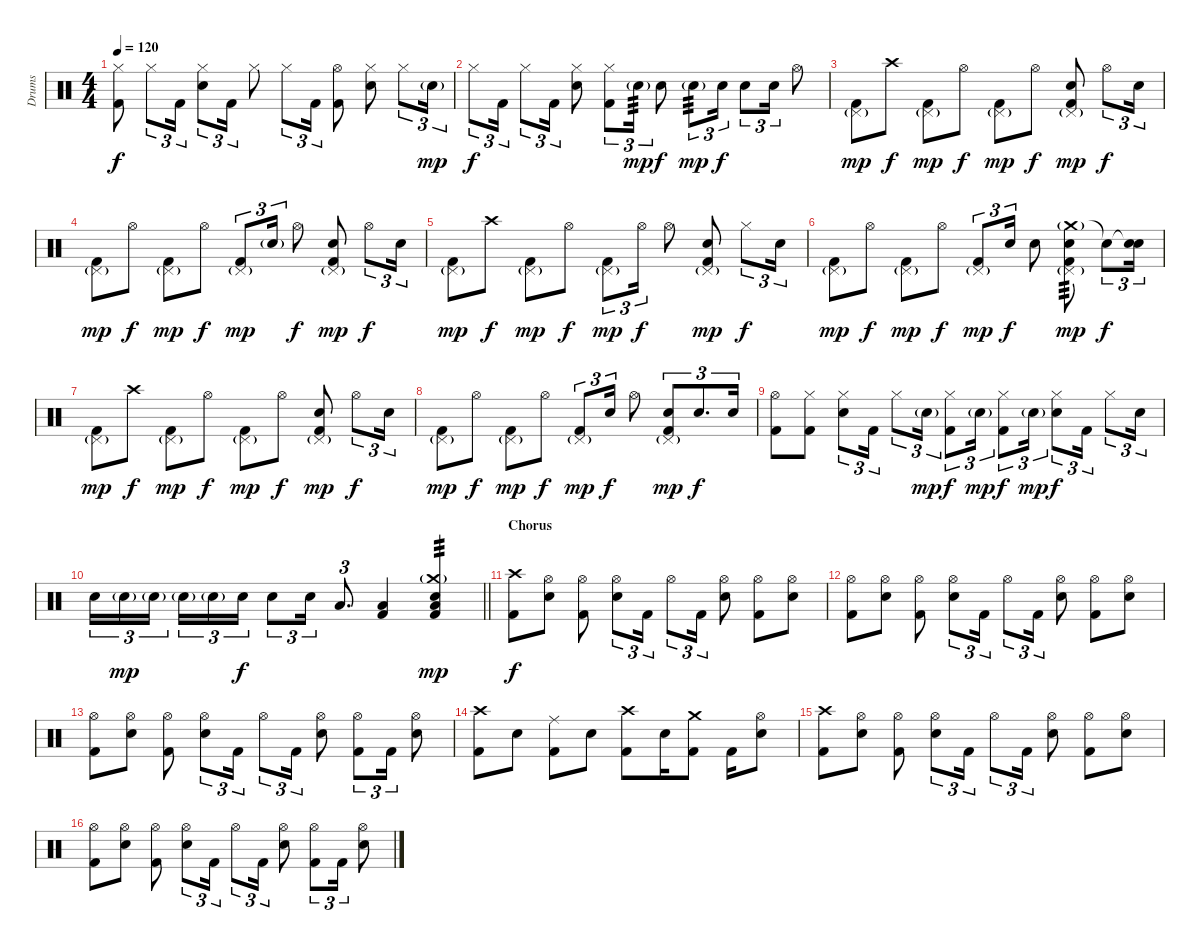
\track ("Drums" "Drums") {instrument percussion}
\staff {score}
\articulation defaults
\ts (4 4)
\tempo 120
\clef neutral
\ks c
("Hi-Hat (closed)" "Kick (hit) 2").8{dy f} "Hi-Hat (closed)".8{tu (3 2)} "Kick (hit) 2".16{tu (3 2)} ("Hi-Hat (closed)" "Electric Snare (hit)").8{tu (3 2)} "Kick (hit) 2".16{tu (3 2)} "Hi-Hat (closed)".8 "Hi-Hat (closed)".8{tu (3 2)} "Kick (hit) 2".16{tu (3 2)} ("Hi-Hat (open)" "Kick (hit) 2").8 ("Hi-Hat (closed)" "Electric Snare (hit)").8 "Hi-Hat (closed)".8{tu (3 2)} "Electric Snare (hit)"{g}.16{tu (3 2) dy mp} |
"Hi-Hat (closed)".8{tu (3 2) dy f} "Kick (hit) 2".16{tu (3 2)} "Hi-Hat (closed)".8{tu (3 2)} "Kick (hit) 2".16{tu (3 2)} ("Hi-Hat (closed)" "Electric Snare (hit)").8 ("Hi-Hat (closed)" "Kick (hit) 2").8{tu (3 2)} "Electric Snare (hit)"{g}.16{tu (3 2) tp 3 dy mp} "Electric Snare (hit)".8{dy f} "Electric Snare (hit)"{g}.8{tu (3 2) tp 3 dy mp} "Electric Snare (hit)".16{tu (3 2) dy f} "Electric Snare (hit)".8{tu (3 2)} "Electric Snare (hit)".16{tu (3 2)} "Hi-Hat (open)".8 |
("Pedal Hi-Hat (hit)"{g} "Kick (hit) 2").8{dy mp} "Crash high (hit)".8{dy f} ("Pedal Hi-Hat (hit)"{g} "Kick (hit) 2").8{dy mp} "Hi-Hat (open)".8{dy f} ("Pedal Hi-Hat (hit)"{g} "Kick (hit) 2").8{dy mp} "Hi-Hat (open)".8{dy f} ("Pedal Hi-Hat (hit)"{g} "Electric Snare (hit)" "Kick (hit) 2").8{dy mp} "Hi-Hat (open)".8{tu (3 2) dy f} "Electric Snare (hit)".16{tu (3 2)} |
("Pedal Hi-Hat (hit)"{g} "Kick (hit) 2").8{dy mp} "Hi-Hat (open)".8{dy f} ("Pedal Hi-Hat (hit)"{g} "Kick (hit) 2").8{dy mp} "Hi-Hat (open)".8{dy f} ("Pedal Hi-Hat (hit)"{g} "Kick (hit) 2").8{tu (3 2) dy mp} "Electric Snare (hit)"{g}.16{tu (3 2)} "Hi-Hat (open)".8{dy f} ("Pedal Hi-Hat (hit)"{g} "Electric Snare (hit)" "Kick (hit) 2").8{dy mp} "Hi-Hat (open)".8{tu (3 2) dy f} "Electric Snare (hit)".16{tu (3 2)} |
("Pedal Hi-Hat (hit)"{g} "Kick (hit) 2").8{dy mp} "Crash high (hit)".8{dy f} ("Pedal Hi-Hat (hit)"{g} "Kick (hit) 2").8{dy mp} "Hi-Hat (open)".8{dy f} ("Pedal Hi-Hat (hit)"{g} "Kick (hit) 2").8{tu (3 2) dy mp} "Hi-Hat (open)".16{tu (3 2) dy f} "Hi-Hat (open)".8 ("Pedal Hi-Hat (hit)"{g} "Electric Snare (hit)" "Kick (hit) 2").8{dy mp} "Hi-Hat (closed)".8{tu (3 2) dy f} "Electric Snare (hit)".16{tu (3 2)} |
("Pedal Hi-Hat (hit)"{g} "Kick (hit) 2").8{dy mp} "Hi-Hat (open)".8{dy f} ("Pedal Hi-Hat (hit)"{g} "Kick (hit) 2").8{dy mp} "Hi-Hat (open)".8{dy f} ("Pedal Hi-Hat (hit)"{g} "Kick (hit) 2").8{tu (3 2) dy mp} "Electric Snare (hit)".16{tu (3 2) dy f} "Electric Snare (hit)".8 ("Crash medium (hit)"{g} "Pedal Hi-Hat (hit)"{g} "Electric Snare (hit)" "Kick (hit) 2").8{tp 3 dy mp} "Snare (hit)"{t}.8{tu (3 2) dy f} ("Snare (hit)"{t} "Electric Snare (hit)").16{tu (3 2)} |
("Pedal Hi-Hat (hit)"{g} "Kick (hit) 2").8{dy mp} "Crash high (hit)".8{dy f} ("Pedal Hi-Hat (hit)"{g} "Kick (hit) 2").8{dy mp} "Hi-Hat (open)".8{dy f} ("Pedal Hi-Hat (hit)"{g} "Kick (hit) 2").8{dy mp} "Hi-Hat (open)".8{dy f} ("Pedal Hi-Hat (hit)"{g} "Electric Snare (hit)" "Kick (hit) 2").8{dy mp} "Hi-Hat (open)".8{tu (3 2) dy f} "Electric Snare (hit)".16{tu (3 2)} |
("Pedal Hi-Hat (hit)"{g} "Kick (hit) 2").8{dy mp} "Hi-Hat (open)".8{dy f} ("Pedal Hi-Hat (hit)"{g} "Kick (hit) 2").8{dy mp} "Hi-Hat (open)".8{dy f} ("Pedal Hi-Hat (hit)"{g} "Kick (hit) 2").8{tu (3 2) dy mp} "Electric Snare (hit)".16{tu (3 2) dy f} "Hi-Hat (open)".8 ("Pedal Hi-Hat (hit)"{g} "Electric Snare (hit)" "Kick (hit) 2").8{tu (3 2) dy mp} "Electric Snare (hit)".8{d tu (3 2) dy f} "Electric Snare (hit)".16{tu (3 2)} |
("Hi-Hat (open)" "Kick (hit) 2").8 ("Hi-Hat (closed)" "Kick (hit) 2").8 ("Hi-Hat (closed)" "Electric Snare (hit)").8{tu (3 2)} "Kick (hit) 2".16{tu (3 2)} "Hi-Hat (closed)".8{tu (3 2)} "Electric Snare (hit)"{g}.16{tu (3 2) dy mp} ("Hi-Hat (closed)" "Kick (hit) 2").8{tu (3 2) dy f} "Electric Snare (hit)"{g}.16{tu (3 2) dy mp} ("Hi-Hat (closed)" "Kick (hit) 2").8{tu (3 2) dy f} "Electric Snare (hit)"{g}.16{tu (3 2) dy mp} ("Hi-Hat (closed)" "Electric Snare (hit)").8{tu (3 2) dy f} "Kick (hit) 2".16{tu (3 2)} "Hi-Hat (closed)".8{tu (3 2)} "Electric Snare (hit)".16{tu (3 2)} |
\barLineRight lightlight "Electric Snare (hit)".16{tu (3 2)} "Electric Snare (hit)"{g}.16{tu (3 2) dy mp} "Electric Snare (hit)"{g}.16{tu (3 2) beam splitsecondary} "Electric Snare (hit)"{g}.16{tu (3 2)} "Electric Snare (hit)"{g}.16{tu (3 2)} "Electric Snare (hit)".16{tu (3 2) dy f} "Electric Snare (hit)".8{tu (3 2)} "Electric Snare (hit)".16{tu (3 2)} "Low Tom (hit)".8{d tu (3 2)}
("Low Floor Tom (hit)" "Kick (hit) 2").4 ("Crash medium (hit)"{g} "Electric Snare (hit)" "Low Floor Tom (hit)" "Kick (hit) 2").4{tp 3 dy mp} |
\section ("" "Chorus")
("Crash high (hit)" "Kick (hit) 2").8{dy f} ("Hi-Hat (open)" "Electric Snare (hit)").8 ("Hi-Hat (open)" "Kick (hit) 2").8 ("Hi-Hat (open)" "Electric Snare (hit)").8{tu (3 2)} "Kick (hit) 2".16{tu (3 2)} "Hi-Hat (open)".8{tu (3 2)} "Kick (hit) 2".16{tu (3 2)} ("Hi-Hat (open)" "Electric Snare (hit)").8 ("Hi-Hat (open)" "Kick (hit) 2").8 ("Hi-Hat (open)" "Electric Snare (hit)").8 |
("Hi-Hat (open)" "Kick (hit) 2").8 ("Hi-Hat (open)" "Electric Snare (hit)").8 ("Hi-Hat (open)" "Kick (hit) 2").8 ("Hi-Hat (open)" "Electric Snare (hit)").8{tu (3 2)} "Kick (hit) 2".16{tu (3 2)} "Hi-Hat (open)".8{tu (3 2)} "Kick (hit) 2".16{tu (3 2)} ("Hi-Hat (open)" "Electric Snare (hit)").8 ("Hi-Hat (open)" "Kick (hit) 2").8 ("Hi-Hat (open)" "Electric Snare (hit)").8 |
("Hi-Hat (open)" "Kick (hit) 2").8 ("Hi-Hat (open)" "Electric Snare (hit)").8 ("Hi-Hat (open)" "Kick (hit) 2").8 ("Hi-Hat (open)" "Electric Snare (hit)").8{tu (3 2)} "Kick (hit) 2".16{tu (3 2)} "Hi-Hat (open)".8{tu (3 2)} "Kick (hit) 2".16{tu (3 2)} ("Hi-Hat (open)" "Electric Snare (hit)").8 ("Hi-Hat (open)" "Kick (hit) 2").8{tu (3 2)} "Kick (hit) 2".16{tu (3 2)} ("Hi-Hat (open)" "Electric Snare (hit)").8 |
("Crash high (hit)" "Kick (hit) 2").8 "Electric Snare (hit)".8 ("Ride (middle)" "Kick (hit) 2").8 "Electric Snare (hit)".8 ("Crash high (hit)" "Kick (hit) 2").8 "Electric Snare (hit)".16 ("Crash medium (hit)" "Kick (hit) 2").8 "Kick (hit) 2".16 ("Hi-Hat (open)" "Electric Snare (hit)").8 |
("Crash high (hit)" "Kick (hit) 2").8 ("Hi-Hat (open)" "Electric Snare (hit)").8 ("Hi-Hat (open)" "Kick (hit) 2").8 ("Hi-Hat (open)" "Electric Snare (hit)").8{tu (3 2)} "Kick (hit) 2".16{tu (3 2)} "Hi-Hat (open)".8{tu (3 2)} "Kick (hit) 2".16{tu (3 2)} ("Hi-Hat (open)" "Electric Snare (hit)").8 ("Hi-Hat (open)" "Kick (hit) 2").8 ("Hi-Hat (open)" "Electric Snare (hit)").8 |
("Hi-Hat (open)" "Kick (hit) 2").8 ("Hi-Hat (open)" "Electric Snare (hit)").8 ("Hi-Hat (open)" "Kick (hit) 2").8 ("Hi-Hat (open)" "Electric Snare (hit)").8{tu (3 2)} "Kick (hit) 2".16{tu (3 2)} "Hi-Hat (open)".8{tu (3 2)} "Kick (hit) 2".16{tu (3 2)} ("Hi-Hat (open)" "Electric Snare (hit)").8 ("Hi-Hat (open)" "Kick (hit) 2").8{tu (3 2)} "Kick (hit) 2".16{tu (3 2)} ("Hi-Hat (open)" "Electric Snare (hit)").8
